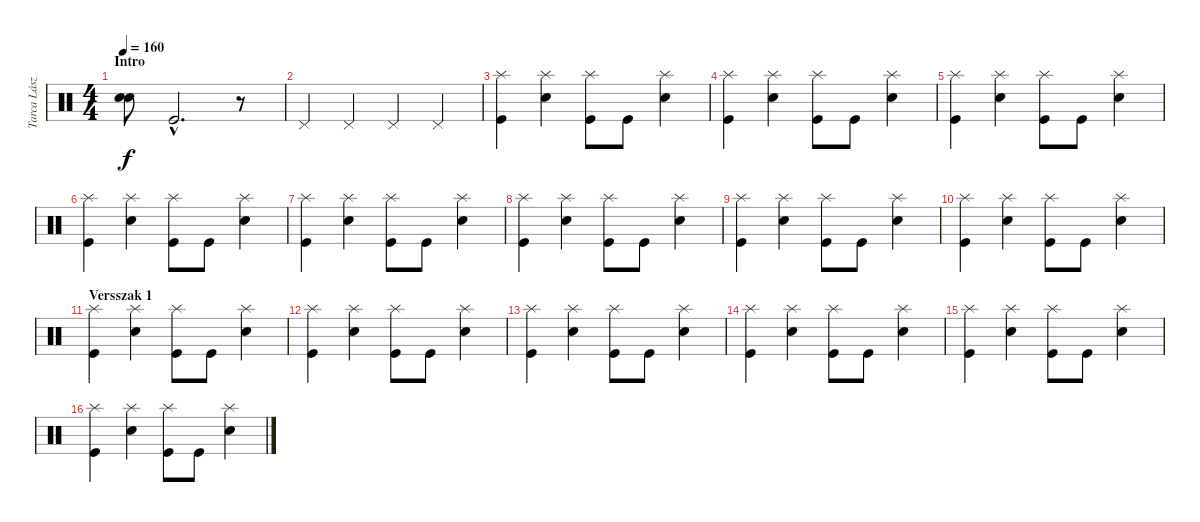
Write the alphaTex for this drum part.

\track ("Tarca László" "Tarca Lász") {instrument percussion}
\staff {score}
\articulation defaults
\ts (4 4)
\section ("" "Intro")
\tempo 160
\clef neutral
\ks c
("Electric Snare (hit)" "Snare (hit) 2").8{dy f} "Kick (hit)"{hac}.2{d} r.8 |
"Pedal Hi-Hat (hit)".4 "Pedal Hi-Hat (hit)".4 "Pedal Hi-Hat (hit)".4 "Pedal Hi-Hat (hit)".4 |
("Splash (hit)" "Kick (hit)").4 ("Splash (hit)" "Electric Snare (hit)").4 ("Splash (hit)" "Kick (hit)").8 "Kick (hit)".8 ("Splash (hit)" "Electric Snare (hit)").4 |
("Splash (hit)" "Kick (hit)").4 ("Splash (hit)" "Electric Snare (hit)").4 ("Splash (hit)" "Kick (hit)").8 "Kick (hit)".8 ("Splash (hit)" "Electric Snare (hit)").4 |
("Splash (hit)" "Kick (hit)").4 ("Splash (hit)" "Electric Snare (hit)").4 ("Splash (hit)" "Kick (hit)").8 "Kick (hit)".8 ("Splash (hit)" "Electric Snare (hit)").4 |
("Splash (hit)" "Kick (hit)").4 ("Splash (hit)" "Electric Snare (hit)").4 ("Splash (hit)" "Kick (hit)").8 "Kick (hit)".8 ("Splash (hit)" "Electric Snare (hit)").4 |
("Splash (hit)" "Kick (hit)").4 ("Splash (hit)" "Electric Snare (hit)").4 ("Splash (hit)" "Kick (hit)").8 "Kick (hit)".8 ("Splash (hit)" "Electric Snare (hit)").4 |
("Splash (hit)" "Kick (hit)").4 ("Splash (hit)" "Electric Snare (hit)").4 ("Splash (hit)" "Kick (hit)").8 "Kick (hit)".8 ("Splash (hit)" "Electric Snare (hit)").4 |
("Splash (hit)" "Kick (hit)").4 ("Splash (hit)" "Electric Snare (hit)").4 ("Splash (hit)" "Kick (hit)").8 "Kick (hit)".8 ("Splash (hit)" "Electric Snare (hit)").4 |
("Splash (hit)" "Kick (hit)").4 ("Splash (hit)" "Electric Snare (hit)").4 ("Splash (hit)" "Kick (hit)").8 "Kick (hit)".8 ("Splash (hit)" "Electric Snare (hit)").4 |
\section ("" "Versszak 1")
("Splash (hit)" "Kick (hit)").4 ("Splash (hit)" "Electric Snare (hit)").4 ("Splash (hit)" "Kick (hit)").8 "Kick (hit)".8 ("Splash (hit)" "Electric Snare (hit)").4 |
("Splash (hit)" "Kick (hit)").4 ("Splash (hit)" "Electric Snare (hit)").4 ("Splash (hit)" "Kick (hit)").8 "Kick (hit)".8 ("Splash (hit)" "Electric Snare (hit)").4 |
("Splash (hit)" "Kick (hit)").4 ("Splash (hit)" "Electric Snare (hit)").4 ("Splash (hit)" "Kick (hit)").8 "Kick (hit)".8 ("Splash (hit)" "Electric Snare (hit)").4 |
("Splash (hit)" "Kick (hit)").4 ("Splash (hit)" "Electric Snare (hit)").4 ("Splash (hit)" "Kick (hit)").8 "Kick (hit)".8 ("Splash (hit)" "Electric Snare (hit)").4 |
("Splash (hit)" "Kick (hit)").4 ("Splash (hit)" "Electric Snare (hit)").4 ("Splash (hit)" "Kick (hit)").8 "Kick (hit)".8 ("Splash (hit)" "Electric Snare (hit)").4 |
("Splash (hit)" "Kick (hit)").4 ("Splash (hit)" "Electric Snare (hit)").4 ("Splash (hit)" "Kick (hit)").8 "Kick (hit)".8 ("Splash (hit)" "Electric Snare (hit)").4
